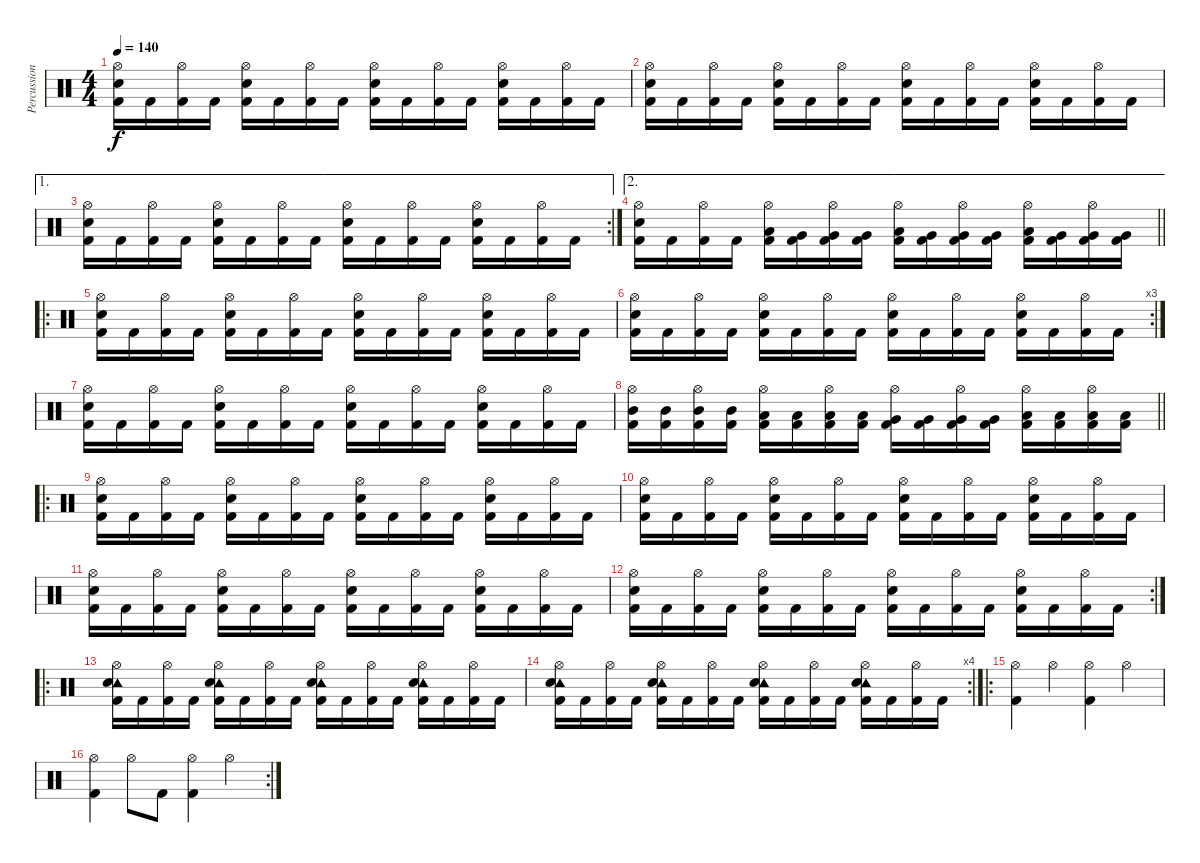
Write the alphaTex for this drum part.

\track ("Percussion" "Percussion") {instrument percussion}
\staff {score}
\articulation defaults
\ts (4 4)
\tempo 140
\clef neutral
\ks c
("Hi-Hat (open)" "Snare (hit) 2" "Kick (hit) 2").16{dy f} "Kick (hit) 2".16 ("Hi-Hat (open)" "Kick (hit) 2").16 "Kick (hit) 2".16 ("Hi-Hat (open)" "Snare (hit) 2" "Kick (hit) 2").16 "Kick (hit) 2".16 ("Hi-Hat (open)" "Kick (hit) 2").16 "Kick (hit) 2".16 ("Hi-Hat (open)" "Snare (hit) 2" "Kick (hit) 2").16 "Kick (hit) 2".16 ("Hi-Hat (open)" "Kick (hit) 2").16 "Kick (hit) 2".16 ("Hi-Hat (open)" "Snare (hit) 2" "Kick (hit) 2").16 "Kick (hit) 2".16 ("Hi-Hat (open)" "Kick (hit) 2").16 "Kick (hit) 2".16 |
("Hi-Hat (open)" "Snare (hit) 2" "Kick (hit) 2").16 "Kick (hit) 2".16 ("Hi-Hat (open)" "Kick (hit) 2").16 "Kick (hit) 2".16 ("Hi-Hat (open)" "Snare (hit) 2" "Kick (hit) 2").16 "Kick (hit) 2".16 ("Hi-Hat (open)" "Kick (hit) 2").16 "Kick (hit) 2".16 ("Hi-Hat (open)" "Snare (hit) 2" "Kick (hit) 2").16 "Kick (hit) 2".16 ("Hi-Hat (open)" "Kick (hit) 2").16 "Kick (hit) 2".16 ("Hi-Hat (open)" "Snare (hit) 2" "Kick (hit) 2").16 "Kick (hit) 2".16 ("Hi-Hat (open)" "Kick (hit) 2").16 "Kick (hit) 2".16 |
\ae 1
\rc 2
("Hi-Hat (open)" "Snare (hit) 2" "Kick (hit) 2").16 "Kick (hit) 2".16 ("Hi-Hat (open)" "Kick (hit) 2").16 "Kick (hit) 2".16 ("Hi-Hat (open)" "Snare (hit) 2" "Kick (hit) 2").16 "Kick (hit) 2".16 ("Hi-Hat (open)" "Kick (hit) 2").16 "Kick (hit) 2".16 ("Hi-Hat (open)" "Snare (hit) 2" "Kick (hit) 2").16 "Kick (hit) 2".16 ("Hi-Hat (open)" "Kick (hit) 2").16 "Kick (hit) 2".16 ("Hi-Hat (open)" "Snare (hit) 2" "Kick (hit) 2").16 "Kick (hit) 2".16 ("Hi-Hat (open)" "Kick (hit) 2").16 "Kick (hit) 2".16 |
\ae 2
\barLineRight lightlight
("Hi-Hat (open)" "Snare (hit) 2" "Kick (hit) 2").16 "Kick (hit) 2".16 ("Hi-Hat (open)" "Kick (hit) 2").16 "Kick (hit) 2".16 ("Hi-Hat (open)" "Low Tom (hit)" "Kick (hit) 2").16 ("Very Low Tom (hit)" "Kick (hit) 2").16 ("Hi-Hat (open)" "Very Low Tom (hit)" "Kick (hit) 2").16 ("Very Low Tom (hit)" "Kick (hit) 2").16 ("Hi-Hat (open)" "Low Tom (hit)" "Kick (hit) 2").16 ("Very Low Tom (hit)" "Kick (hit) 2").16 ("Hi-Hat (open)" "Very Low Tom (hit)" "Kick (hit) 2").16 ("Very Low Tom (hit)" "Kick (hit) 2").16 ("Hi-Hat (open)" "Low Tom (hit)" "Kick (hit) 2").16 ("Very Low Tom (hit)" "Kick (hit) 2").16 ("Hi-Hat (open)" "Very Low Tom (hit)" "Kick (hit) 2").16 ("Very Low Tom (hit)" "Kick (hit) 2").16 |
\ro
("Hi-Hat (open)" "Snare (hit) 2" "Kick (hit) 2").16 "Kick (hit) 2".16 ("Hi-Hat (open)" "Kick (hit) 2").16 "Kick (hit) 2".16 ("Hi-Hat (open)" "Snare (hit) 2" "Kick (hit) 2").16 "Kick (hit) 2".16 ("Hi-Hat (open)" "Kick (hit) 2").16 "Kick (hit) 2".16 ("Hi-Hat (open)" "Snare (hit) 2" "Kick (hit) 2").16 "Kick (hit) 2".16 ("Hi-Hat (open)" "Kick (hit) 2").16 "Kick (hit) 2".16 ("Hi-Hat (open)" "Snare (hit) 2" "Kick (hit) 2").16 "Kick (hit) 2".16 ("Hi-Hat (open)" "Kick (hit) 2").16 "Kick (hit) 2".16 |
\rc 3
("Hi-Hat (open)" "Snare (hit) 2" "Kick (hit) 2").16 "Kick (hit) 2".16 ("Hi-Hat (open)" "Kick (hit) 2").16 "Kick (hit) 2".16 ("Hi-Hat (open)" "Snare (hit) 2" "Kick (hit) 2").16 "Kick (hit) 2".16 ("Hi-Hat (open)" "Kick (hit) 2").16 "Kick (hit) 2".16 ("Hi-Hat (open)" "Snare (hit) 2" "Kick (hit) 2").16 "Kick (hit) 2".16 ("Hi-Hat (open)" "Kick (hit) 2").16 "Kick (hit) 2".16 ("Hi-Hat (open)" "Snare (hit) 2" "Kick (hit) 2").16 "Kick (hit) 2".16 ("Hi-Hat (open)" "Kick (hit) 2").16 "Kick (hit) 2".16 |
("Hi-Hat (open)" "Snare (hit) 2" "Kick (hit) 2").16 "Kick (hit) 2".16 ("Hi-Hat (open)" "Kick (hit) 2").16 "Kick (hit) 2".16 ("Hi-Hat (open)" "Snare (hit) 2" "Kick (hit) 2").16 "Kick (hit) 2".16 ("Hi-Hat (open)" "Kick (hit) 2").16 "Kick (hit) 2".16 ("Hi-Hat (open)" "Snare (hit) 2" "Kick (hit) 2").16 "Kick (hit) 2".16 ("Hi-Hat (open)" "Kick (hit) 2").16 "Kick (hit) 2".16 ("Hi-Hat (open)" "Snare (hit) 2" "Kick (hit) 2").16 "Kick (hit) 2".16 ("Hi-Hat (open)" "Kick (hit) 2").16 "Kick (hit) 2".16 |
\barLineRight lightlight
("Hi-Hat (open)" "Mid Tom (hit)" "Kick (hit) 2").16 ("Mid Tom (hit)" "Kick (hit) 2").16 ("Hi-Hat (open)" "Mid Tom (hit)" "Kick (hit) 2").16 ("Mid Tom (hit)" "Kick (hit) 2").16 ("Hi-Hat (open)" "Low Tom (hit)" "Kick (hit) 2").16 ("Low Tom (hit)" "Kick (hit) 2").16 ("Hi-Hat (open)" "Low Tom (hit)" "Kick (hit) 2").16 ("Low Tom (hit)" "Kick (hit) 2").16 ("Hi-Hat (open)" "Very Low Tom (hit)" "Kick (hit) 2").16 ("Very Low Tom (hit)" "Kick (hit) 2").16 ("Hi-Hat (open)" "Very Low Tom (hit)" "Kick (hit) 2").16 ("Very Low Tom (hit)" "Kick (hit) 2").16 ("Hi-Hat (open)" "Low Floor Tom (hit)" "Kick (hit) 2").16 ("Low Floor Tom (hit)" "Kick (hit) 2").16 ("Hi-Hat (open)" "Low Floor Tom (hit)" "Kick (hit) 2").16 ("Low Floor Tom (hit)" "Kick (hit) 2").16 |
\ro
("Hi-Hat (open)" "Snare (hit) 2" "Kick (hit) 2").16 "Kick (hit) 2".16 ("Hi-Hat (open)" "Kick (hit) 2").16 "Kick (hit) 2".16 ("Hi-Hat (open)" "Snare (hit) 2" "Kick (hit) 2").16 "Kick (hit) 2".16 ("Hi-Hat (open)" "Kick (hit) 2").16 "Kick (hit) 2".16 ("Hi-Hat (open)" "Snare (hit) 2" "Kick (hit) 2").16 "Kick (hit) 2".16 ("Hi-Hat (open)" "Kick (hit) 2").16 "Kick (hit) 2".16 ("Hi-Hat (open)" "Snare (hit) 2" "Kick (hit) 2").16 "Kick (hit) 2".16 ("Hi-Hat (open)" "Kick (hit) 2").16 "Kick (hit) 2".16 |
("Hi-Hat (open)" "Snare (hit) 2" "Kick (hit) 2").16 "Kick (hit) 2".16 ("Hi-Hat (open)" "Kick (hit) 2").16 "Kick (hit) 2".16 ("Hi-Hat (open)" "Snare (hit) 2" "Kick (hit) 2").16 "Kick (hit) 2".16 ("Hi-Hat (open)" "Kick (hit) 2").16 "Kick (hit) 2".16 ("Hi-Hat (open)" "Snare (hit) 2" "Kick (hit) 2").16 "Kick (hit) 2".16 ("Hi-Hat (open)" "Kick (hit) 2").16 "Kick (hit) 2".16 ("Hi-Hat (open)" "Snare (hit) 2" "Kick (hit) 2").16 "Kick (hit) 2".16 ("Hi-Hat (open)" "Kick (hit) 2").16 "Kick (hit) 2".16 |
("Hi-Hat (open)" "Snare (hit) 2" "Kick (hit) 2").16 "Kick (hit) 2".16 ("Hi-Hat (open)" "Kick (hit) 2").16 "Kick (hit) 2".16 ("Hi-Hat (open)" "Snare (hit) 2" "Kick (hit) 2").16 "Kick (hit) 2".16 ("Hi-Hat (open)" "Kick (hit) 2").16 "Kick (hit) 2".16 ("Hi-Hat (open)" "Snare (hit) 2" "Kick (hit) 2").16 "Kick (hit) 2".16 ("Hi-Hat (open)" "Kick (hit) 2").16 "Kick (hit) 2".16 ("Hi-Hat (open)" "Snare (hit) 2" "Kick (hit) 2").16 "Kick (hit) 2".16 ("Hi-Hat (open)" "Kick (hit) 2").16 "Kick (hit) 2".16 |
\rc 2
("Hi-Hat (open)" "Snare (hit) 2" "Kick (hit) 2").16 "Kick (hit) 2".16 ("Hi-Hat (open)" "Kick (hit) 2").16 "Kick (hit) 2".16 ("Hi-Hat (open)" "Snare (hit) 2" "Kick (hit) 2").16 "Kick (hit) 2".16 ("Hi-Hat (open)" "Kick (hit) 2").16 "Kick (hit) 2".16 ("Hi-Hat (open)" "Snare (hit) 2" "Kick (hit) 2").16 "Kick (hit) 2".16 ("Hi-Hat (open)" "Kick (hit) 2").16 "Kick (hit) 2".16 ("Hi-Hat (open)" "Snare (hit) 2" "Kick (hit) 2").16 "Kick (hit) 2".16 ("Hi-Hat (open)" "Kick (hit) 2").16 "Kick (hit) 2".16 |
\ro
("Hi-Hat (open)" "Tambourine (hit)" "Snare (hit) 2" "Kick (hit) 2").16 "Kick (hit) 2".16 ("Hi-Hat (open)" "Kick (hit) 2").16 "Kick (hit) 2".16 ("Hi-Hat (open)" "Tambourine (hit)" "Snare (hit) 2" "Kick (hit) 2").16 "Kick (hit) 2".16 ("Hi-Hat (open)" "Kick (hit) 2").16 "Kick (hit) 2".16 ("Hi-Hat (open)" "Tambourine (hit)" "Snare (hit) 2" "Kick (hit) 2").16 "Kick (hit) 2".16 ("Hi-Hat (open)" "Kick (hit) 2").16 "Kick (hit) 2".16 ("Hi-Hat (open)" "Tambourine (hit)" "Snare (hit) 2" "Kick (hit) 2").16 "Kick (hit) 2".16 ("Hi-Hat (open)" "Kick (hit) 2").16 "Kick (hit) 2".16 |
\rc 4
("Hi-Hat (open)" "Tambourine (hit)" "Snare (hit) 2" "Kick (hit) 2").16 "Kick (hit) 2".16 ("Hi-Hat (open)" "Kick (hit) 2").16 "Kick (hit) 2".16 ("Hi-Hat (open)" "Tambourine (hit)" "Snare (hit) 2" "Kick (hit) 2").16 "Kick (hit) 2".16 ("Hi-Hat (open)" "Kick (hit) 2").16 "Kick (hit) 2".16 ("Hi-Hat (open)" "Tambourine (hit)" "Snare (hit) 2" "Kick (hit) 2").16 "Kick (hit) 2".16 ("Hi-Hat (open)" "Kick (hit) 2").16 "Kick (hit) 2".16 ("Hi-Hat (open)" "Tambourine (hit)" "Snare (hit) 2" "Kick (hit) 2").16 "Kick (hit) 2".16 ("Hi-Hat (open)" "Kick (hit) 2").16 "Kick (hit) 2".16 |
\ro
("Hi-Hat (open)" "Kick (hit) 2").4 "Hi-Hat (open)".4 ("Hi-Hat (open)" "Kick (hit) 2").4 "Hi-Hat (open)".4 |
\rc 2
("Hi-Hat (open)" "Kick (hit) 2").4 "Hi-Hat (open)".8 "Kick (hit) 2".8 ("Hi-Hat (open)" "Kick (hit) 2").4 "Hi-Hat (open)".4
